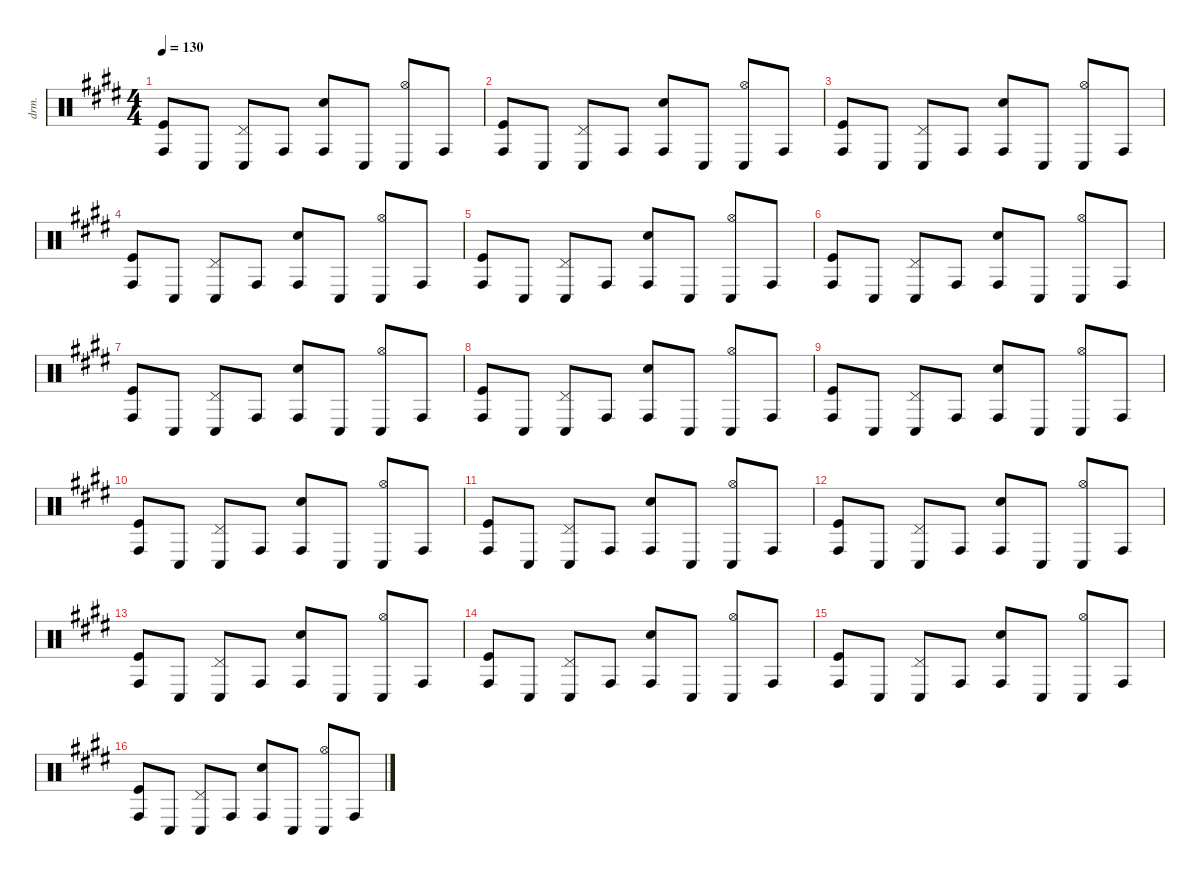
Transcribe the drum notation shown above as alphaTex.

\defaultSystemsLayout 4
\hideDynamics
\bracketExtendMode nobrackets
\otherSystemsTrackNameOrientation horizontal
\track ("Percussion" "drm.") {instrument percussion}
\staff {score}
\articulation defaults
\ts (4 4)
\tempo 130
\clef neutral
\ks e
("Conga high (hit)"{acc forcenatural} "Kick (hit)"{acc forcenatural}).8{dy f} "Conga low (hit)"{acc forcenatural}.8 ("Pedal Hi-Hat (hit)"{acc forcenatural} "Conga low (hit)"{acc forcenatural}).8 "Conga high (hit)"{acc forcenatural}.8 ("Conga high (hit)"{acc forcenatural} "Snare (hit) 2"{acc forcenatural}).8 "Conga low (hit)"{acc forcenatural}.8 ("Hi-Hat (open)"{acc forcenatural} "Conga low (hit)"{acc forcenatural}).8 "Conga high (hit)"{acc forcenatural}.8 |
("Conga high (hit)"{acc forcenatural} "Kick (hit)"{acc forcenatural}).8 "Conga low (hit)"{acc forcenatural}.8 ("Pedal Hi-Hat (hit)"{acc forcenatural} "Conga low (hit)"{acc forcenatural}).8 "Conga high (hit)"{acc forcenatural}.8 ("Conga high (hit)"{acc forcenatural} "Snare (hit) 2"{acc forcenatural}).8 "Conga low (hit)"{acc forcenatural}.8 ("Hi-Hat (open)"{acc forcenatural} "Conga low (hit)"{acc forcenatural}).8 "Conga high (hit)"{acc forcenatural}.8 |
("Conga high (hit)"{acc forcenatural} "Kick (hit)"{acc forcenatural}).8 "Conga low (hit)"{acc forcenatural}.8 ("Pedal Hi-Hat (hit)"{acc forcenatural} "Conga low (hit)"{acc forcenatural}).8 "Conga high (hit)"{acc forcenatural}.8 ("Conga high (hit)"{acc forcenatural} "Snare (hit) 2"{acc forcenatural}).8 "Conga low (hit)"{acc forcenatural}.8 ("Hi-Hat (open)"{acc forcenatural} "Conga low (hit)"{acc forcenatural}).8 "Conga high (hit)"{acc forcenatural}.8 |
("Conga high (hit)"{acc forcenatural} "Kick (hit)"{acc forcenatural}).8 "Conga low (hit)"{acc forcenatural}.8 ("Pedal Hi-Hat (hit)"{acc forcenatural} "Conga low (hit)"{acc forcenatural}).8 "Conga high (hit)"{acc forcenatural}.8 ("Conga high (hit)"{acc forcenatural} "Snare (hit) 2"{acc forcenatural}).8 "Conga low (hit)"{acc forcenatural}.8 ("Hi-Hat (open)"{acc forcenatural} "Conga low (hit)"{acc forcenatural}).8 "Conga high (hit)"{acc forcenatural}.8 |
("Conga high (hit)"{acc forcenatural} "Kick (hit)"{acc forcenatural}).8 "Conga low (hit)"{acc forcenatural}.8 ("Pedal Hi-Hat (hit)"{acc forcenatural} "Conga low (hit)"{acc forcenatural}).8 "Conga high (hit)"{acc forcenatural}.8 ("Conga high (hit)"{acc forcenatural} "Snare (hit) 2"{acc forcenatural}).8 "Conga low (hit)"{acc forcenatural}.8 ("Hi-Hat (open)"{acc forcenatural} "Conga low (hit)"{acc forcenatural}).8 "Conga high (hit)"{acc forcenatural}.8 |
("Conga high (hit)"{acc forcenatural} "Kick (hit)"{acc forcenatural}).8 "Conga low (hit)"{acc forcenatural}.8 ("Pedal Hi-Hat (hit)"{acc forcenatural} "Conga low (hit)"{acc forcenatural}).8 "Conga high (hit)"{acc forcenatural}.8 ("Conga high (hit)"{acc forcenatural} "Snare (hit) 2"{acc forcenatural}).8 "Conga low (hit)"{acc forcenatural}.8 ("Hi-Hat (open)"{acc forcenatural} "Conga low (hit)"{acc forcenatural}).8 "Conga high (hit)"{acc forcenatural}.8 |
("Conga high (hit)"{acc forcenatural} "Kick (hit)"{acc forcenatural}).8 "Conga low (hit)"{acc forcenatural}.8 ("Pedal Hi-Hat (hit)"{acc forcenatural} "Conga low (hit)"{acc forcenatural}).8 "Conga high (hit)"{acc forcenatural}.8 ("Conga high (hit)"{acc forcenatural} "Snare (hit) 2"{acc forcenatural}).8 "Conga low (hit)"{acc forcenatural}.8 ("Hi-Hat (open)"{acc forcenatural} "Conga low (hit)"{acc forcenatural}).8 "Conga high (hit)"{acc forcenatural}.8 |
("Conga high (hit)"{acc forcenatural} "Kick (hit)"{acc forcenatural}).8 "Conga low (hit)"{acc forcenatural}.8 ("Pedal Hi-Hat (hit)"{acc forcenatural} "Conga low (hit)"{acc forcenatural}).8 "Conga high (hit)"{acc forcenatural}.8 ("Conga high (hit)"{acc forcenatural} "Snare (hit) 2"{acc forcenatural}).8 "Conga low (hit)"{acc forcenatural}.8 ("Hi-Hat (open)"{acc forcenatural} "Conga low (hit)"{acc forcenatural}).8 "Conga high (hit)"{acc forcenatural}.8 |
("Conga high (hit)"{acc forcenatural} "Kick (hit)"{acc forcenatural}).8 "Conga low (hit)"{acc forcenatural}.8 ("Pedal Hi-Hat (hit)"{acc forcenatural} "Conga low (hit)"{acc forcenatural}).8 "Conga high (hit)"{acc forcenatural}.8 ("Conga high (hit)"{acc forcenatural} "Snare (hit) 2"{acc forcenatural}).8 "Conga low (hit)"{acc forcenatural}.8 ("Hi-Hat (open)"{acc forcenatural} "Conga low (hit)"{acc forcenatural}).8 "Conga high (hit)"{acc forcenatural}.8 |
("Conga high (hit)"{acc forcenatural} "Kick (hit)"{acc forcenatural}).8 "Conga low (hit)"{acc forcenatural}.8 ("Pedal Hi-Hat (hit)"{acc forcenatural} "Conga low (hit)"{acc forcenatural}).8 "Conga high (hit)"{acc forcenatural}.8 ("Conga high (hit)"{acc forcenatural} "Snare (hit) 2"{acc forcenatural}).8 "Conga low (hit)"{acc forcenatural}.8 ("Hi-Hat (open)"{acc forcenatural} "Conga low (hit)"{acc forcenatural}).8 "Conga high (hit)"{acc forcenatural}.8 |
("Conga high (hit)"{acc forcenatural} "Kick (hit)"{acc forcenatural}).8 "Conga low (hit)"{acc forcenatural}.8 ("Pedal Hi-Hat (hit)"{acc forcenatural} "Conga low (hit)"{acc forcenatural}).8 "Conga high (hit)"{acc forcenatural}.8 ("Conga high (hit)"{acc forcenatural} "Snare (hit) 2"{acc forcenatural}).8 "Conga low (hit)"{acc forcenatural}.8 ("Hi-Hat (open)"{acc forcenatural} "Conga low (hit)"{acc forcenatural}).8 "Conga high (hit)"{acc forcenatural}.8 |
("Conga high (hit)"{acc forcenatural} "Kick (hit)"{acc forcenatural}).8 "Conga low (hit)"{acc forcenatural}.8 ("Pedal Hi-Hat (hit)"{acc forcenatural} "Conga low (hit)"{acc forcenatural}).8 "Conga high (hit)"{acc forcenatural}.8 ("Conga high (hit)"{acc forcenatural} "Snare (hit) 2"{acc forcenatural}).8 "Conga low (hit)"{acc forcenatural}.8 ("Hi-Hat (open)"{acc forcenatural} "Conga low (hit)"{acc forcenatural}).8 "Conga high (hit)"{acc forcenatural}.8 |
("Conga high (hit)"{acc forcenatural} "Kick (hit)"{acc forcenatural}).8 "Conga low (hit)"{acc forcenatural}.8 ("Pedal Hi-Hat (hit)"{acc forcenatural} "Conga low (hit)"{acc forcenatural}).8 "Conga high (hit)"{acc forcenatural}.8 ("Conga high (hit)"{acc forcenatural} "Snare (hit) 2"{acc forcenatural}).8 "Conga low (hit)"{acc forcenatural}.8 ("Hi-Hat (open)"{acc forcenatural} "Conga low (hit)"{acc forcenatural}).8 "Conga high (hit)"{acc forcenatural}.8 |
("Conga high (hit)"{acc forcenatural} "Kick (hit)"{acc forcenatural}).8 "Conga low (hit)"{acc forcenatural}.8 ("Pedal Hi-Hat (hit)"{acc forcenatural} "Conga low (hit)"{acc forcenatural}).8 "Conga high (hit)"{acc forcenatural}.8 ("Conga high (hit)"{acc forcenatural} "Snare (hit) 2"{acc forcenatural}).8 "Conga low (hit)"{acc forcenatural}.8 ("Hi-Hat (open)"{acc forcenatural} "Conga low (hit)"{acc forcenatural}).8 "Conga high (hit)"{acc forcenatural}.8 |
("Conga high (hit)"{acc forcenatural} "Kick (hit)"{acc forcenatural}).8 "Conga low (hit)"{acc forcenatural}.8 ("Pedal Hi-Hat (hit)"{acc forcenatural} "Conga low (hit)"{acc forcenatural}).8 "Conga high (hit)"{acc forcenatural}.8 ("Conga high (hit)"{acc forcenatural} "Snare (hit) 2"{acc forcenatural}).8 "Conga low (hit)"{acc forcenatural}.8 ("Hi-Hat (open)"{acc forcenatural} "Conga low (hit)"{acc forcenatural}).8 "Conga high (hit)"{acc forcenatural}.8 |
("Conga high (hit)"{acc forcenatural} "Kick (hit)"{acc forcenatural}).8 "Conga low (hit)"{acc forcenatural}.8 ("Pedal Hi-Hat (hit)"{acc forcenatural} "Conga low (hit)"{acc forcenatural}).8 "Conga high (hit)"{acc forcenatural}.8 ("Conga high (hit)"{acc forcenatural} "Snare (hit) 2"{acc forcenatural}).8 "Conga low (hit)"{acc forcenatural}.8 ("Hi-Hat (open)"{acc forcenatural} "Conga low (hit)"{acc forcenatural}).8 "Conga high (hit)"{acc forcenatural}.8
